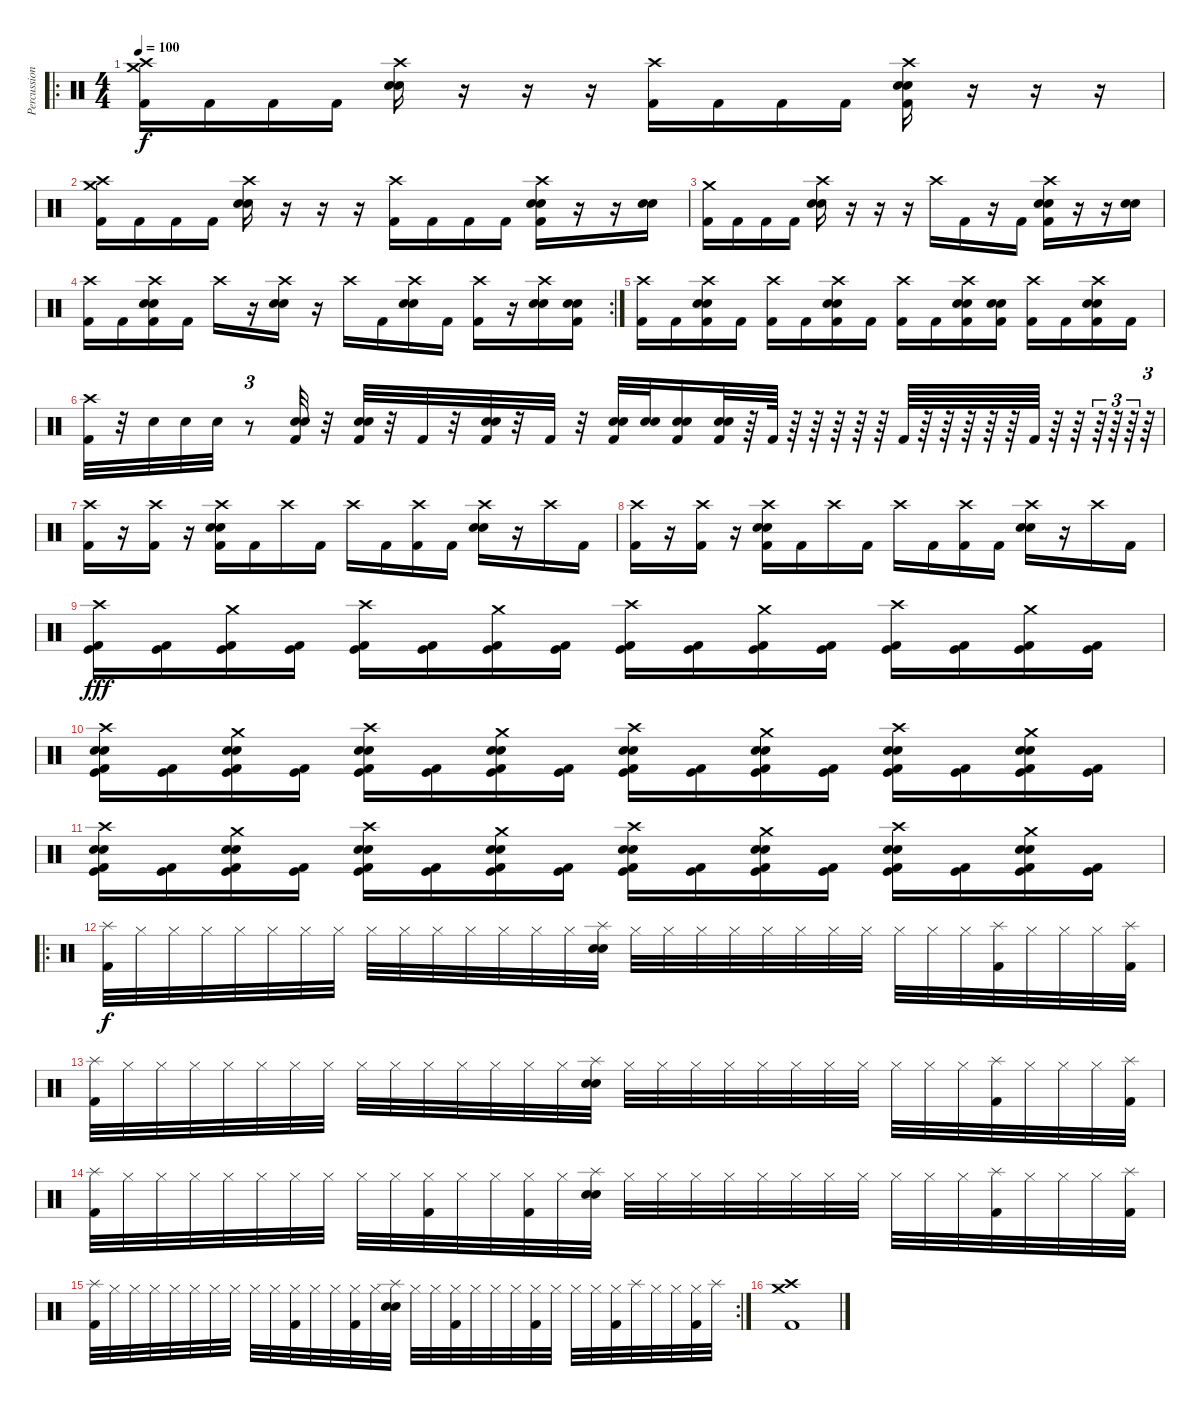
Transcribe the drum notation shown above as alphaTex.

\track ("Percussion" "Percussion") {instrument percussion}
\staff {score}
\articulation defaults
\ro
\ts (4 4)
\tempo 100
\clef neutral
\ks c
("Crash medium (hit)" "Crash high (hit)" "Kick (hit) 2").16{dy f} "Kick (hit) 2".16 "Kick (hit) 2".16 "Kick (hit) 2".16 ("Crash high (hit)" "Electric Snare (hit)" "Snare (hit) 2").16 r.16 r.16 r.16 ("Crash high (hit)" "Kick (hit) 2").16 "Kick (hit) 2".16 "Kick (hit) 2".16 "Kick (hit) 2".16 ("Crash high (hit)" "Electric Snare (hit)" "Snare (hit) 2" "Kick (hit) 2").16 r.16 r.16 r.16 |
("Crash medium (hit)" "Crash high (hit)" "Kick (hit) 2").16 "Kick (hit) 2".16 "Kick (hit) 2".16 "Kick (hit) 2".16 ("Crash high (hit)" "Electric Snare (hit)" "Snare (hit) 2").16 r.16 r.16 r.16 ("Crash high (hit)" "Kick (hit) 2").16 "Kick (hit) 2".16 "Kick (hit) 2".16 "Kick (hit) 2".16 ("Crash high (hit)" "Electric Snare (hit)" "Snare (hit) 2" "Kick (hit) 2").16 r.16 r.16 ("Electric Snare (hit)" "Snare (hit) 2").16 |
("Crash medium (hit)" "Kick (hit) 2").16 "Kick (hit) 2".16 "Kick (hit) 2".16 "Kick (hit) 2".16 ("Crash high (hit)" "Electric Snare (hit)" "Snare (hit) 2").16 r.16 r.16 r.16 "Crash high (hit)".16 "Kick (hit) 2".16 r.16 "Kick (hit) 2".16 ("Crash high (hit)" "Electric Snare (hit)" "Snare (hit) 2" "Kick (hit) 2").16 r.16 r.16 ("Electric Snare (hit)" "Snare (hit) 2").16 |
\rc 2
("Crash high (hit)" "Kick (hit) 2").16 "Kick (hit) 2".16 ("Crash high (hit)" "Electric Snare (hit)" "Snare (hit) 2" "Kick (hit) 2").16 "Kick (hit) 2".16 "Crash high (hit)".16 r.16 ("Crash high (hit)" "Electric Snare (hit)" "Snare (hit) 2").16 r.16 "Crash high (hit)".16 "Kick (hit) 2".16 ("Crash high (hit)" "Electric Snare (hit)" "Snare (hit) 2").16 "Kick (hit) 2".16 ("Crash high (hit)" "Kick (hit) 2").16 r.16 ("Crash high (hit)" "Electric Snare (hit)" "Snare (hit) 2").16 ("Electric Snare (hit)" "Snare (hit) 2" "Kick (hit) 2").16 |
("Crash high (hit)" "Kick (hit) 2").16 "Kick (hit) 2".16 ("Crash high (hit)" "Electric Snare (hit)" "Snare (hit) 2" "Kick (hit) 2").16 "Kick (hit) 2".16 ("Crash high (hit)" "Kick (hit) 2").16 "Kick (hit) 2".16 ("Crash high (hit)" "Electric Snare (hit)" "Snare (hit) 2" "Kick (hit) 2").16 "Kick (hit) 2".16 ("Crash high (hit)" "Kick (hit) 2").16 "Kick (hit) 2".16 ("Crash high (hit)" "Electric Snare (hit)" "Snare (hit) 2" "Kick (hit) 2").16 ("Electric Snare (hit)" "Snare (hit) 2" "Kick (hit) 2").16 ("Crash high (hit)" "Kick (hit) 2").16 "Kick (hit) 2".16 ("Crash high (hit)" "Electric Snare (hit)" "Snare (hit) 2" "Kick (hit) 2").16 "Kick (hit) 2".16 |
("Crash high (hit)" "Kick (hit) 2").32 r.32 "Electric Snare (hit)".32 "Electric Snare (hit)".32 "Electric Snare (hit)".32 r.8{tu (3 2)} ("Electric Snare (hit)" "Snare (hit) 2" "Kick (hit) 2").32 r.32 ("Electric Snare (hit)" "Snare (hit) 2" "Kick (hit) 2").32 r.32 "Kick (hit) 2".32 r.32 ("Electric Snare (hit)" "Snare (hit) 2" "Kick (hit) 2").32 r.32 "Kick (hit) 2".32 r.32 ("Electric Snare (hit)" "Snare (hit) 2" "Kick (hit) 2").32 ("Electric Snare (hit)" "Snare (hit) 2").32 ("Electric Snare (hit)" "Snare (hit) 2" "Kick (hit) 2").16 ("Electric Snare (hit)" "Snare (hit) 2" "Kick (hit) 2").32 r.64 "Kick (hit) 2".64 r.64 r.64 r.64 r.64 r.64 "Kick (hit) 2".64 r.64 r.64 r.64 r.64 r.64 "Kick (hit) 2".64 r.64 r.64 r.64{tu (3 2)} r.64{tu (3 2)} r.64{tu (3 2)} r.64{tu (3 2)} |
("Crash high (hit)" "Kick (hit) 2").16 r.16 ("Crash high (hit)" "Kick (hit) 2").16 r.16 ("Crash high (hit)" "Electric Snare (hit)" "Snare (hit) 2" "Kick (hit) 2").16 "Kick (hit) 2".16 "Crash high (hit)".16 "Kick (hit) 2".16 "Crash high (hit)".16 "Kick (hit) 2".16 ("Crash high (hit)" "Kick (hit) 2").16 "Kick (hit) 2".16 ("Crash high (hit)" "Electric Snare (hit)" "Snare (hit) 2").16 r.16 "Crash high (hit)".16 "Kick (hit) 2".16 |
("Crash high (hit)" "Kick (hit) 2").16 r.16 ("Crash high (hit)" "Kick (hit) 2").16 r.16 ("Crash high (hit)" "Electric Snare (hit)" "Snare (hit) 2" "Kick (hit) 2").16 "Kick (hit) 2".16 "Crash high (hit)".16 "Kick (hit) 2".16 "Crash high (hit)".16 "Kick (hit) 2".16 ("Crash high (hit)" "Kick (hit) 2").16 "Kick (hit) 2".16 ("Crash high (hit)" "Electric Snare (hit)" "Snare (hit) 2").16 r.16 "Crash high (hit)".16 "Kick (hit) 2".16 |
("Crash high (hit)" "Kick (hit)" "Kick (hit) 2").16{dy fff} ("Kick (hit)" "Kick (hit) 2").16 ("Crash medium (hit)" "Kick (hit)" "Kick (hit) 2").16 ("Kick (hit)" "Kick (hit) 2").16 ("Crash high (hit)" "Kick (hit)" "Kick (hit) 2").16 ("Kick (hit)" "Kick (hit) 2").16 ("Crash medium (hit)" "Kick (hit)" "Kick (hit) 2").16 ("Kick (hit)" "Kick (hit) 2").16 ("Crash high (hit)" "Kick (hit)" "Kick (hit) 2").16 ("Kick (hit)" "Kick (hit) 2").16 ("Crash medium (hit)" "Kick (hit)" "Kick (hit) 2").16 ("Kick (hit)" "Kick (hit) 2").16 ("Crash high (hit)" "Kick (hit)" "Kick (hit) 2").16 ("Kick (hit)" "Kick (hit) 2").16 ("Crash medium (hit)" "Kick (hit)" "Kick (hit) 2").16 ("Kick (hit)" "Kick (hit) 2").16 |
("Crash high (hit)" "Electric Snare (hit)" "Snare (hit) 2" "Kick (hit)" "Kick (hit) 2").16 ("Kick (hit)" "Kick (hit) 2").16 ("Crash medium (hit)" "Electric Snare (hit)" "Snare (hit) 2" "Kick (hit)" "Kick (hit) 2").16 ("Kick (hit)" "Kick (hit) 2").16 ("Crash high (hit)" "Electric Snare (hit)" "Snare (hit) 2" "Kick (hit)" "Kick (hit) 2").16 ("Kick (hit)" "Kick (hit) 2").16 ("Crash medium (hit)" "Electric Snare (hit)" "Snare (hit) 2" "Kick (hit)" "Kick (hit) 2").16 ("Kick (hit)" "Kick (hit) 2").16 ("Crash high (hit)" "Electric Snare (hit)" "Snare (hit) 2" "Kick (hit)" "Kick (hit) 2").16 ("Kick (hit)" "Kick (hit) 2").16 ("Crash medium (hit)" "Electric Snare (hit)" "Snare (hit) 2" "Kick (hit)" "Kick (hit) 2").16 ("Kick (hit)" "Kick (hit) 2").16 ("Crash high (hit)" "Electric Snare (hit)" "Snare (hit) 2" "Kick (hit)" "Kick (hit) 2").16 ("Kick (hit)" "Kick (hit) 2").16 ("Crash medium (hit)" "Electric Snare (hit)" "Snare (hit) 2" "Kick (hit)" "Kick (hit) 2").16 ("Kick (hit)" "Kick (hit) 2").16 |
("Crash high (hit)" "Electric Snare (hit)" "Snare (hit) 2" "Kick (hit)" "Kick (hit) 2").16 ("Kick (hit)" "Kick (hit) 2").16 ("Crash medium (hit)" "Electric Snare (hit)" "Snare (hit) 2" "Kick (hit)" "Kick (hit) 2").16 ("Kick (hit)" "Kick (hit) 2").16 ("Crash high (hit)" "Electric Snare (hit)" "Snare (hit) 2" "Kick (hit)" "Kick (hit) 2").16 ("Kick (hit)" "Kick (hit) 2").16 ("Crash medium (hit)" "Electric Snare (hit)" "Snare (hit) 2" "Kick (hit)" "Kick (hit) 2").16 ("Kick (hit)" "Kick (hit) 2").16 ("Crash high (hit)" "Electric Snare (hit)" "Snare (hit) 2" "Kick (hit)" "Kick (hit) 2").16 ("Kick (hit)" "Kick (hit) 2").16 ("Crash medium (hit)" "Electric Snare (hit)" "Snare (hit) 2" "Kick (hit)" "Kick (hit) 2").16 ("Kick (hit)" "Kick (hit) 2").16 ("Crash high (hit)" "Electric Snare (hit)" "Snare (hit) 2" "Kick (hit)" "Kick (hit) 2").16 ("Kick (hit)" "Kick (hit) 2").16 ("Crash medium (hit)" "Electric Snare (hit)" "Snare (hit) 2" "Kick (hit)" "Kick (hit) 2").16 ("Kick (hit)" "Kick (hit) 2").16 |
\ro
("Splash (hit)" "Kick (hit) 2").32{dy f} "Hi-Hat (closed)".32 "Hi-Hat (closed)".32 "Hi-Hat (closed)".32 "Hi-Hat (closed)".32 "Hi-Hat (closed)".32 "Hi-Hat (closed)".32 "Hi-Hat (closed)".32 "Hi-Hat (closed)".32 "Hi-Hat (closed)".32 "Hi-Hat (closed)".32 "Hi-Hat (closed)".32 "Hi-Hat (closed)".32 "Hi-Hat (closed)".32 "Hi-Hat (closed)".32 ("Splash (hit)" "Electric Snare (hit)" "Snare (hit) 2").32 "Hi-Hat (closed)".32 "Hi-Hat (closed)".32 "Hi-Hat (closed)".32 "Hi-Hat (closed)".32 "Hi-Hat (closed)".32 "Hi-Hat (closed)".32 "Hi-Hat (closed)".32 "Hi-Hat (closed)".32 "Hi-Hat (closed)".32 "Hi-Hat (closed)".32 "Hi-Hat (closed)".32 ("Splash (hit)" "Kick (hit) 2").32 "Hi-Hat (closed)".32 "Hi-Hat (closed)".32 "Hi-Hat (closed)".32 ("Splash (hit)" "Kick (hit) 2").32 |
("Splash (hit)" "Kick (hit) 2").32 "Hi-Hat (closed)".32 "Hi-Hat (closed)".32 "Hi-Hat (closed)".32 "Hi-Hat (closed)".32 "Hi-Hat (closed)".32 "Hi-Hat (closed)".32 "Hi-Hat (closed)".32 "Hi-Hat (closed)".32 "Hi-Hat (closed)".32 "Hi-Hat (closed)".32 "Hi-Hat (closed)".32 "Hi-Hat (closed)".32 "Hi-Hat (closed)".32 "Hi-Hat (closed)".32 ("Splash (hit)" "Electric Snare (hit)" "Snare (hit) 2").32 "Hi-Hat (closed)".32 "Hi-Hat (closed)".32 "Hi-Hat (closed)".32 "Hi-Hat (closed)".32 "Hi-Hat (closed)".32 "Hi-Hat (closed)".32 "Hi-Hat (closed)".32 "Hi-Hat (closed)".32 "Hi-Hat (closed)".32 "Hi-Hat (closed)".32 "Hi-Hat (closed)".32 ("Splash (hit)" "Kick (hit) 2").32 "Hi-Hat (closed)".32 "Hi-Hat (closed)".32 "Hi-Hat (closed)".32 ("Splash (hit)" "Kick (hit) 2").32 |
("Splash (hit)" "Kick (hit) 2").32 "Hi-Hat (closed)".32 "Hi-Hat (closed)".32 "Hi-Hat (closed)".32 "Hi-Hat (closed)".32 "Hi-Hat (closed)".32 "Hi-Hat (closed)".32 "Hi-Hat (closed)".32 "Hi-Hat (closed)".32 "Hi-Hat (closed)".32 ("Hi-Hat (closed)" "Kick (hit) 2").32 "Hi-Hat (closed)".32 "Hi-Hat (closed)".32 ("Hi-Hat (closed)" "Kick (hit) 2").32 "Hi-Hat (closed)".32 ("Splash (hit)" "Electric Snare (hit)" "Snare (hit) 2").32 "Hi-Hat (closed)".32 "Hi-Hat (closed)".32 "Hi-Hat (closed)".32 "Hi-Hat (closed)".32 "Hi-Hat (closed)".32 "Hi-Hat (closed)".32 "Hi-Hat (closed)".32 "Hi-Hat (closed)".32 "Hi-Hat (closed)".32 "Hi-Hat (closed)".32 "Hi-Hat (closed)".32 ("Splash (hit)" "Kick (hit) 2").32 "Hi-Hat (closed)".32 "Hi-Hat (closed)".32 "Hi-Hat (closed)".32 ("Splash (hit)" "Kick (hit) 2").32 |
\rc 2
("Splash (hit)" "Kick (hit) 2").32 "Hi-Hat (closed)".32 "Hi-Hat (closed)".32 "Hi-Hat (closed)".32 "Hi-Hat (closed)".32 "Hi-Hat (closed)".32 "Hi-Hat (closed)".32 "Hi-Hat (closed)".32 "Hi-Hat (closed)".32 "Hi-Hat (closed)".32 ("Hi-Hat (closed)" "Kick (hit) 2").32 "Hi-Hat (closed)".32 "Hi-Hat (closed)".32 ("Hi-Hat (closed)" "Kick (hit) 2").32 "Hi-Hat (closed)".32 ("Splash (hit)" "Electric Snare (hit)" "Snare (hit) 2").32 "Hi-Hat (closed)".32 "Hi-Hat (closed)".32 ("Hi-Hat (closed)" "Kick (hit) 2").32 "Hi-Hat (closed)".32 "Hi-Hat (closed)".32 "Hi-Hat (closed)".32 ("Hi-Hat (closed)" "Kick (hit) 2").32 "Hi-Hat (closed)".32 "Hi-Hat (closed)".32 "Hi-Hat (closed)".32 ("Hi-Hat (closed)" "Kick (hit) 2").32 "Splash (hit)".32 "Hi-Hat (closed)".32 "Hi-Hat (closed)".32 ("Hi-Hat (closed)" "Kick (hit) 2").32 "Splash (hit)".32 |
("Crash medium (hit)" "Crash high (hit)" "Kick (hit) 2").1
